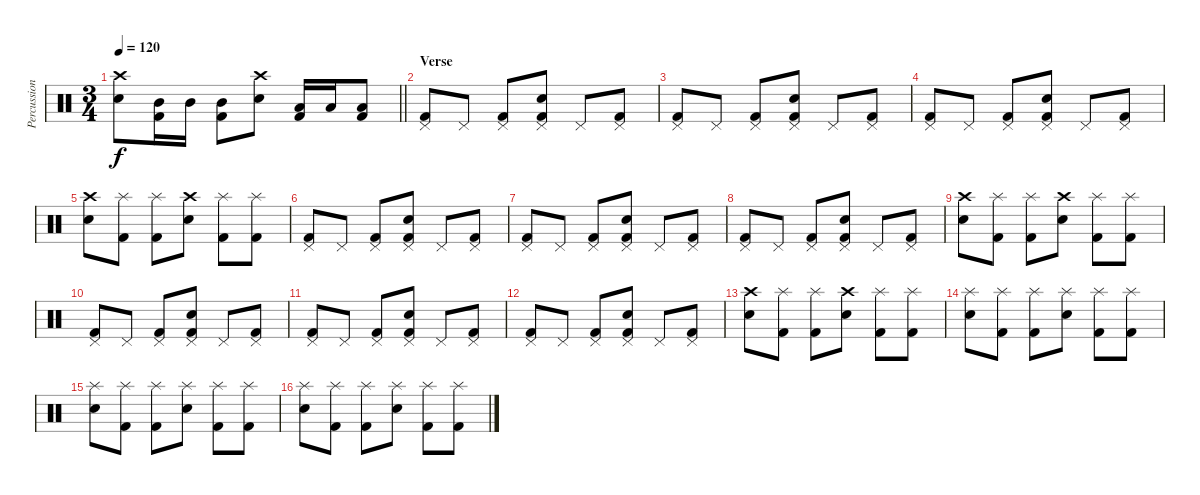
\track ("Percussion" "Percussion") {instrument percussion}
\staff {score}
\articulation defaults
\ts (3 4)
\tempo 120
\clef neutral
\barLineRight lightlight
\ks c
("Crash high (hit)" "Electric Snare (hit)").8{dy f} ("Mid Tom (hit)" "Kick (hit) 2").16 "Mid Tom (hit)".16 ("Mid Tom (hit)" "Kick (hit) 2").8 ("Crash high (hit)" "Electric Snare (hit)").8 ("Low Tom (hit)" "Kick (hit) 2").16 "Low Tom (hit)".16 ("Low Tom (hit)" "Kick (hit) 2").8 |
\section ("" "Verse")
("Pedal Hi-Hat (hit)" "Kick (hit) 2").8 "Pedal Hi-Hat (hit)".8 ("Pedal Hi-Hat (hit)" "Kick (hit) 2").8 ("Pedal Hi-Hat (hit)" "Electric Snare (hit)" "Kick (hit) 2").8 "Pedal Hi-Hat (hit)".8 ("Pedal Hi-Hat (hit)" "Kick (hit) 2").8 |
("Pedal Hi-Hat (hit)" "Kick (hit) 2").8 "Pedal Hi-Hat (hit)".8 ("Pedal Hi-Hat (hit)" "Kick (hit) 2").8 ("Pedal Hi-Hat (hit)" "Electric Snare (hit)" "Kick (hit) 2").8 "Pedal Hi-Hat (hit)".8 ("Pedal Hi-Hat (hit)" "Kick (hit) 2").8 |
("Pedal Hi-Hat (hit)" "Kick (hit) 2").8 "Pedal Hi-Hat (hit)".8 ("Pedal Hi-Hat (hit)" "Kick (hit) 2").8 ("Pedal Hi-Hat (hit)" "Electric Snare (hit)" "Kick (hit) 2").8 "Pedal Hi-Hat (hit)".8 ("Pedal Hi-Hat (hit)" "Kick (hit) 2").8 |
("Crash high (hit)" "Electric Snare (hit)").8 ("Splash (hit)" "Kick (hit) 2").8 ("Splash (hit)" "Kick (hit) 2").8 ("Crash high (hit)" "Electric Snare (hit)").8 ("Splash (hit)" "Kick (hit) 2").8 ("Splash (hit)" "Kick (hit) 2").8 |
("Pedal Hi-Hat (hit)" "Kick (hit) 2").8 "Pedal Hi-Hat (hit)".8 ("Pedal Hi-Hat (hit)" "Kick (hit) 2").8 ("Pedal Hi-Hat (hit)" "Electric Snare (hit)" "Kick (hit) 2").8 "Pedal Hi-Hat (hit)".8 ("Pedal Hi-Hat (hit)" "Kick (hit) 2").8 |
("Pedal Hi-Hat (hit)" "Kick (hit) 2").8 "Pedal Hi-Hat (hit)".8 ("Pedal Hi-Hat (hit)" "Kick (hit) 2").8 ("Pedal Hi-Hat (hit)" "Electric Snare (hit)" "Kick (hit) 2").8 "Pedal Hi-Hat (hit)".8 ("Pedal Hi-Hat (hit)" "Kick (hit) 2").8 |
("Pedal Hi-Hat (hit)" "Kick (hit) 2").8 "Pedal Hi-Hat (hit)".8 ("Pedal Hi-Hat (hit)" "Kick (hit) 2").8 ("Pedal Hi-Hat (hit)" "Electric Snare (hit)" "Kick (hit) 2").8 "Pedal Hi-Hat (hit)".8 ("Pedal Hi-Hat (hit)" "Kick (hit) 2").8 |
("Crash high (hit)" "Electric Snare (hit)").8 ("Splash (hit)" "Kick (hit) 2").8 ("Splash (hit)" "Kick (hit) 2").8 ("Crash high (hit)" "Electric Snare (hit)").8 ("Splash (hit)" "Kick (hit) 2").8 ("Splash (hit)" "Kick (hit) 2").8 |
("Pedal Hi-Hat (hit)" "Kick (hit) 2").8 "Pedal Hi-Hat (hit)".8 ("Pedal Hi-Hat (hit)" "Kick (hit) 2").8 ("Pedal Hi-Hat (hit)" "Electric Snare (hit)" "Kick (hit) 2").8 "Pedal Hi-Hat (hit)".8 ("Pedal Hi-Hat (hit)" "Kick (hit) 2").8 |
("Pedal Hi-Hat (hit)" "Kick (hit) 2").8 "Pedal Hi-Hat (hit)".8 ("Pedal Hi-Hat (hit)" "Kick (hit) 2").8 ("Pedal Hi-Hat (hit)" "Electric Snare (hit)" "Kick (hit) 2").8 "Pedal Hi-Hat (hit)".8 ("Pedal Hi-Hat (hit)" "Kick (hit) 2").8 |
("Pedal Hi-Hat (hit)" "Kick (hit) 2").8 "Pedal Hi-Hat (hit)".8 ("Pedal Hi-Hat (hit)" "Kick (hit) 2").8 ("Pedal Hi-Hat (hit)" "Electric Snare (hit)" "Kick (hit) 2").8 "Pedal Hi-Hat (hit)".8 ("Pedal Hi-Hat (hit)" "Kick (hit) 2").8 |
("Crash high (hit)" "Electric Snare (hit)").8 ("Splash (hit)" "Kick (hit) 2").8 ("Splash (hit)" "Kick (hit) 2").8 ("Crash high (hit)" "Electric Snare (hit)").8 ("Splash (hit)" "Kick (hit) 2").8 ("Splash (hit)" "Kick (hit) 2").8 |
("Splash (hit)" "Electric Snare (hit)").8 ("Splash (hit)" "Kick (hit) 2").8 ("Splash (hit)" "Kick (hit) 2").8 ("Splash (hit)" "Electric Snare (hit)").8 ("Splash (hit)" "Kick (hit) 2").8 ("Splash (hit)" "Kick (hit) 2").8 |
("Splash (hit)" "Electric Snare (hit)").8 ("Splash (hit)" "Kick (hit) 2").8 ("Splash (hit)" "Kick (hit) 2").8 ("Splash (hit)" "Electric Snare (hit)").8 ("Splash (hit)" "Kick (hit) 2").8 ("Splash (hit)" "Kick (hit) 2").8 |
("Splash (hit)" "Electric Snare (hit)").8 ("Splash (hit)" "Kick (hit) 2").8 ("Splash (hit)" "Kick (hit) 2").8 ("Splash (hit)" "Electric Snare (hit)").8 ("Splash (hit)" "Kick (hit) 2").8 ("Splash (hit)" "Kick (hit) 2").8
